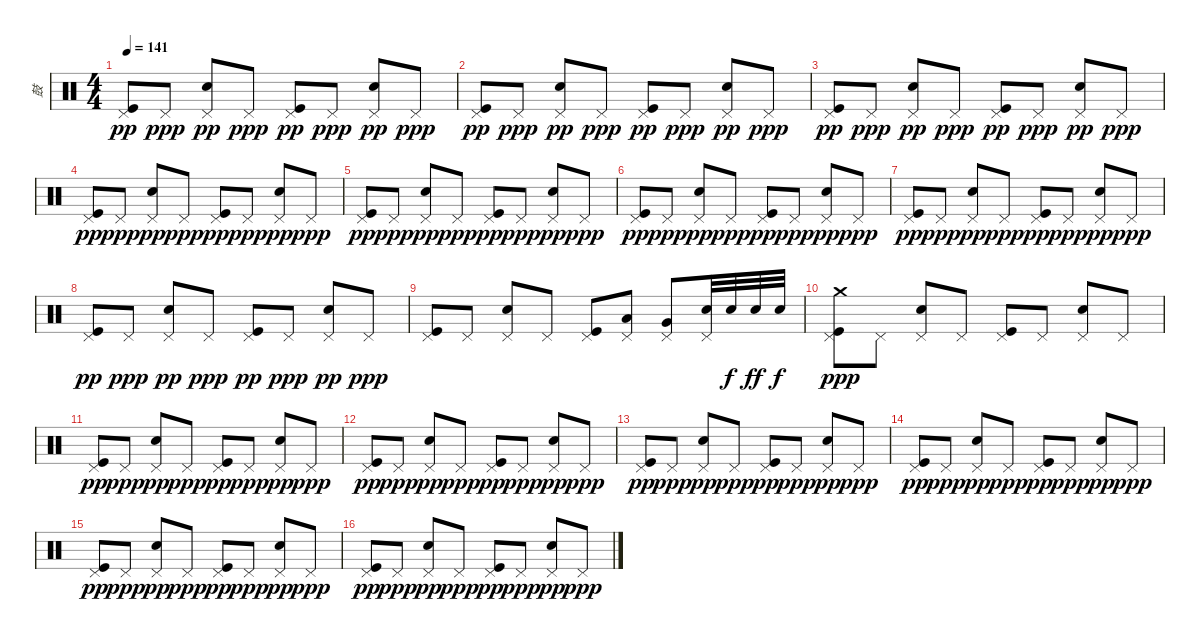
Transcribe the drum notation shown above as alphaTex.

\track ("鼓" "鼓") {instrument percussion}
\staff {score}
\articulation defaults
\ts (4 4)
\tempo 141
\clef neutral
\ks c
("Kick (hit)" "Pedal Hi-Hat (hit)").8{dy pp} "Pedal Hi-Hat (hit)".8{dy ppp} ("Snare (hit) 2" "Pedal Hi-Hat (hit)").8{dy pp} "Pedal Hi-Hat (hit)".8{dy ppp} ("Kick (hit)" "Pedal Hi-Hat (hit)").8{dy pp} "Pedal Hi-Hat (hit)".8{dy ppp} ("Snare (hit) 2" "Pedal Hi-Hat (hit)").8{dy pp} "Pedal Hi-Hat (hit)".8{dy ppp} |
("Kick (hit)" "Pedal Hi-Hat (hit)").8{dy pp} "Pedal Hi-Hat (hit)".8{dy ppp} ("Snare (hit) 2" "Pedal Hi-Hat (hit)").8{dy pp} "Pedal Hi-Hat (hit)".8{dy ppp} ("Kick (hit)" "Pedal Hi-Hat (hit)").8{dy pp} "Pedal Hi-Hat (hit)".8{dy ppp} ("Snare (hit) 2" "Pedal Hi-Hat (hit)").8{dy pp} "Pedal Hi-Hat (hit)".8{dy ppp} |
("Kick (hit)" "Pedal Hi-Hat (hit)").8{dy pp} "Pedal Hi-Hat (hit)".8{dy ppp} ("Snare (hit) 2" "Pedal Hi-Hat (hit)").8{dy pp} "Pedal Hi-Hat (hit)".8{dy ppp} ("Kick (hit)" "Pedal Hi-Hat (hit)").8{dy pp} "Pedal Hi-Hat (hit)".8{dy ppp} ("Snare (hit) 2" "Pedal Hi-Hat (hit)").8{dy pp} "Pedal Hi-Hat (hit)".8{dy ppp} |
("Kick (hit)" "Pedal Hi-Hat (hit)").8{dy pp} "Pedal Hi-Hat (hit)".8{dy ppp} ("Snare (hit) 2" "Pedal Hi-Hat (hit)").8{dy pp} "Pedal Hi-Hat (hit)".8{dy ppp} ("Kick (hit)" "Pedal Hi-Hat (hit)").8{dy pp} "Pedal Hi-Hat (hit)".8{dy ppp} ("Snare (hit) 2" "Pedal Hi-Hat (hit)").8{dy pp} "Pedal Hi-Hat (hit)".8{dy ppp} |
("Kick (hit)" "Pedal Hi-Hat (hit)").8{dy pp} "Pedal Hi-Hat (hit)".8{dy ppp} ("Snare (hit) 2" "Pedal Hi-Hat (hit)").8{dy pp} "Pedal Hi-Hat (hit)".8{dy ppp} ("Kick (hit)" "Pedal Hi-Hat (hit)").8{dy pp} "Pedal Hi-Hat (hit)".8{dy ppp} ("Snare (hit) 2" "Pedal Hi-Hat (hit)").8{dy pp} "Pedal Hi-Hat (hit)".8{dy ppp} |
("Kick (hit)" "Pedal Hi-Hat (hit)").8{dy pp} "Pedal Hi-Hat (hit)".8{dy ppp} ("Snare (hit) 2" "Pedal Hi-Hat (hit)").8{dy pp} "Pedal Hi-Hat (hit)".8{dy ppp} ("Kick (hit)" "Pedal Hi-Hat (hit)").8{dy pp} "Pedal Hi-Hat (hit)".8{dy ppp} ("Snare (hit) 2" "Pedal Hi-Hat (hit)").8{dy pp} "Pedal Hi-Hat (hit)".8{dy ppp} |
("Kick (hit)" "Pedal Hi-Hat (hit)").8{dy pp} "Pedal Hi-Hat (hit)".8{dy ppp} ("Snare (hit) 2" "Pedal Hi-Hat (hit)").8{dy pp} "Pedal Hi-Hat (hit)".8{dy ppp} ("Kick (hit)" "Pedal Hi-Hat (hit)").8{dy pp} "Pedal Hi-Hat (hit)".8{dy ppp} ("Snare (hit) 2" "Pedal Hi-Hat (hit)").8{dy pp} "Pedal Hi-Hat (hit)".8{dy ppp} |
("Kick (hit)" "Pedal Hi-Hat (hit)").8{dy pp} "Pedal Hi-Hat (hit)".8{dy ppp} ("Snare (hit) 2" "Pedal Hi-Hat (hit)").8{dy pp} "Pedal Hi-Hat (hit)".8{dy ppp} ("Kick (hit)" "Pedal Hi-Hat (hit)").8{dy pp} "Pedal Hi-Hat (hit)".8{dy ppp} ("Snare (hit) 2" "Pedal Hi-Hat (hit)").8{dy pp} "Pedal Hi-Hat (hit)".8{dy ppp} |
("Kick (hit)" "Pedal Hi-Hat (hit)").8 "Pedal Hi-Hat (hit)".8 ("Snare (hit) 2" "Pedal Hi-Hat (hit)").8 "Pedal Hi-Hat (hit)".8 ("Kick (hit)" "Pedal Hi-Hat (hit)").8 ("Low Tom (hit)" "Pedal Hi-Hat (hit)").8 ("Very Low Tom (hit)" "Pedal Hi-Hat (hit)").8 ("Snare (hit) 2" "Pedal Hi-Hat (hit)").32 "Snare (hit) 2".32{dy f} "Snare (hit) 2".32{dy ff} "Snare (hit) 2".32{dy f} |
("Crash medium (hit)" "Kick (hit)" "Pedal Hi-Hat (hit)").8{dy ppp} "Pedal Hi-Hat (hit)".8 ("Snare (hit) 2" "Pedal Hi-Hat (hit)").8 "Pedal Hi-Hat (hit)".8 ("Kick (hit)" "Pedal Hi-Hat (hit)").8 "Pedal Hi-Hat (hit)".8 ("Snare (hit) 2" "Pedal Hi-Hat (hit)").8 "Pedal Hi-Hat (hit)".8 |
("Kick (hit)" "Pedal Hi-Hat (hit)").8{dy pp} "Pedal Hi-Hat (hit)".8{dy ppp} ("Snare (hit) 2" "Pedal Hi-Hat (hit)").8{dy pp} "Pedal Hi-Hat (hit)".8{dy ppp} ("Kick (hit)" "Pedal Hi-Hat (hit)").8{dy pp} "Pedal Hi-Hat (hit)".8{dy ppp} ("Snare (hit) 2" "Pedal Hi-Hat (hit)").8{dy pp} "Pedal Hi-Hat (hit)".8{dy ppp} |
("Kick (hit)" "Pedal Hi-Hat (hit)").8{dy pp} "Pedal Hi-Hat (hit)".8{dy ppp} ("Snare (hit) 2" "Pedal Hi-Hat (hit)").8{dy pp} "Pedal Hi-Hat (hit)".8{dy ppp} ("Kick (hit)" "Pedal Hi-Hat (hit)").8{dy pp} "Pedal Hi-Hat (hit)".8{dy ppp} ("Snare (hit) 2" "Pedal Hi-Hat (hit)").8{dy pp} "Pedal Hi-Hat (hit)".8{dy ppp} |
("Kick (hit)" "Pedal Hi-Hat (hit)").8{dy pp} "Pedal Hi-Hat (hit)".8{dy ppp} ("Snare (hit) 2" "Pedal Hi-Hat (hit)").8{dy pp} "Pedal Hi-Hat (hit)".8{dy ppp} ("Kick (hit)" "Pedal Hi-Hat (hit)").8{dy pp} "Pedal Hi-Hat (hit)".8{dy ppp} ("Snare (hit) 2" "Pedal Hi-Hat (hit)").8{dy pp} "Pedal Hi-Hat (hit)".8{dy ppp} |
("Kick (hit)" "Pedal Hi-Hat (hit)").8{dy pp} "Pedal Hi-Hat (hit)".8{dy ppp} ("Snare (hit) 2" "Pedal Hi-Hat (hit)").8{dy pp} "Pedal Hi-Hat (hit)".8{dy ppp} ("Kick (hit)" "Pedal Hi-Hat (hit)").8{dy pp} "Pedal Hi-Hat (hit)".8{dy ppp} ("Snare (hit) 2" "Pedal Hi-Hat (hit)").8{dy pp} "Pedal Hi-Hat (hit)".8{dy ppp} |
("Kick (hit)" "Pedal Hi-Hat (hit)").8{dy pp} "Pedal Hi-Hat (hit)".8{dy ppp} ("Snare (hit) 2" "Pedal Hi-Hat (hit)").8{dy pp} "Pedal Hi-Hat (hit)".8{dy ppp} ("Kick (hit)" "Pedal Hi-Hat (hit)").8{dy pp} "Pedal Hi-Hat (hit)".8{dy ppp} ("Snare (hit) 2" "Pedal Hi-Hat (hit)").8{dy pp} "Pedal Hi-Hat (hit)".8{dy ppp} |
("Kick (hit)" "Pedal Hi-Hat (hit)").8{dy pp} "Pedal Hi-Hat (hit)".8{dy ppp} ("Snare (hit) 2" "Pedal Hi-Hat (hit)").8{dy pp} "Pedal Hi-Hat (hit)".8{dy ppp} ("Kick (hit)" "Pedal Hi-Hat (hit)").8{dy pp} "Pedal Hi-Hat (hit)".8{dy ppp} ("Snare (hit) 2" "Pedal Hi-Hat (hit)").8{dy pp} "Pedal Hi-Hat (hit)".8{dy ppp}
